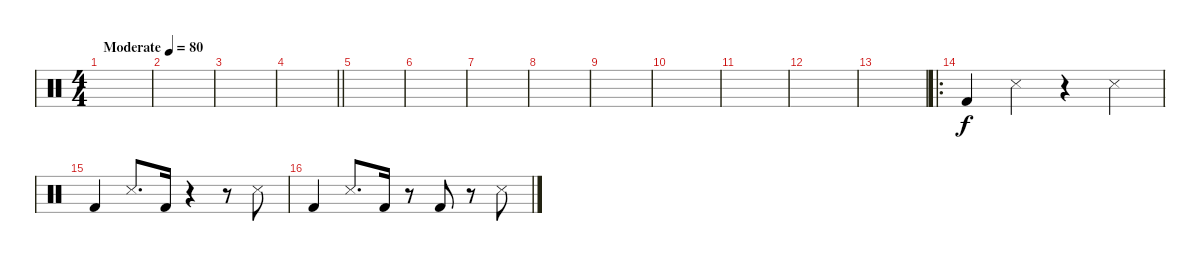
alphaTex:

\track "" {instrument percussion}
\staff {score}
\articulation defaults
\ts (4 4)
\tempo (80 "Moderate")
\clef neutral
\ks c
|
|
|
\barLineRight lightlight
|
|
|
|
|
|
|
|
|
|
\ro "Kick (hit) 2".4 "Metronome (hit)".4
r.4 "Metronome (hit)".4 |
"Kick (hit) 2".4 "Metronome (hit)".8{d} "Kick (hit) 2".16 r.4 r.8 "Metronome (hit)".8 |
"Kick (hit) 2".4 "Metronome (hit)".8{d} "Kick (hit) 2".16 r.8 "Kick (hit) 2".8 r.8 "Metronome (hit)".8
